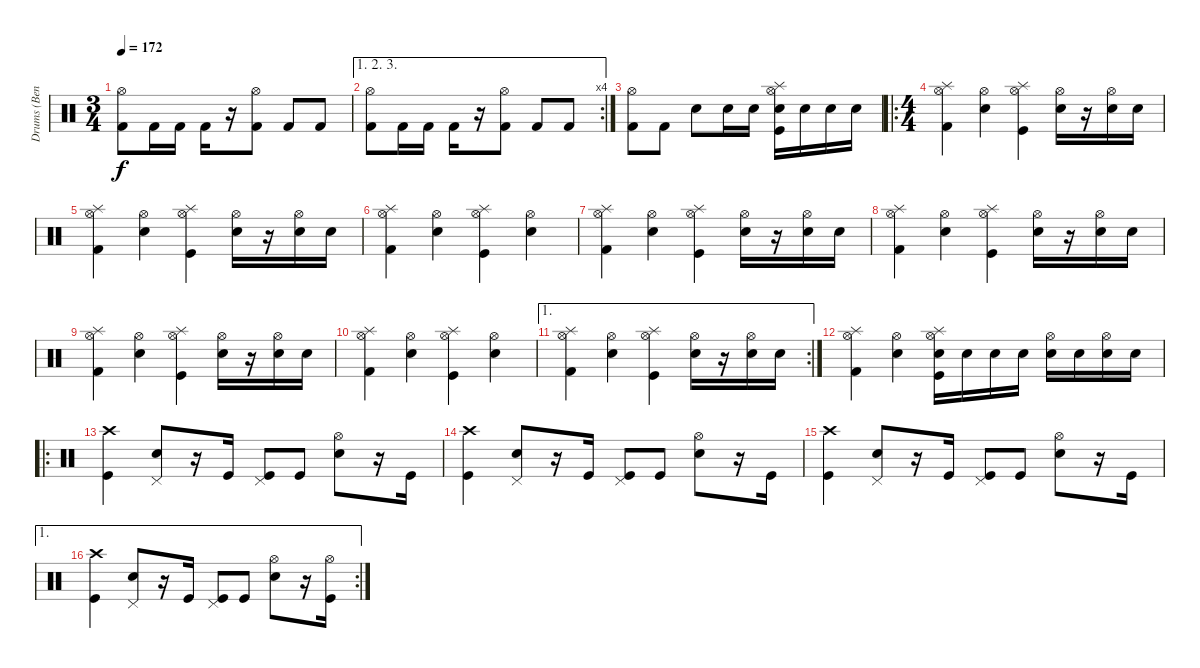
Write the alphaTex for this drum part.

\track ("Drums (Ben)" "Drums (Ben") {instrument percussion}
\staff {score}
\articulation defaults
\ts (3 4)
\tempo 172
\clef neutral
\ks c
("Hi-Hat (open)" "Kick (hit) 2").8{dy f} "Kick (hit) 2".16 "Kick (hit) 2".16 "Kick (hit) 2".16 r.16 ("Hi-Hat (open)" "Kick (hit) 2").8 "Kick (hit) 2".8 "Kick (hit) 2".8 |
\ae (1 2 3)
\rc 4
("Hi-Hat (open)" "Kick (hit) 2").8 "Kick (hit) 2".16 "Kick (hit) 2".16 "Kick (hit) 2".16 r.16 ("Hi-Hat (open)" "Kick (hit) 2").8 "Kick (hit) 2".8 "Kick (hit) 2".8 |
("Hi-Hat (open)" "Kick (hit) 2").8 "Kick (hit) 2".8 "Snare (hit) 2".8 "Snare (hit) 2".16 "Snare (hit) 2".16 ("Kick (hit)" "Snare (hit) 2" "Hi-Hat (open)" "Splash (hit)").16 "Snare (hit) 2".16 "Snare (hit) 2".16 "Snare (hit) 2".16 |
\ro
\ts (4 4)
("Kick (hit) 2" "Hi-Hat (open)" "Splash (hit)").4 ("Snare (hit) 2" "Hi-Hat (open)").4 ("Kick (hit)" "Hi-Hat (open)" "Splash (hit)").4 ("Snare (hit) 2" "Hi-Hat (open)").16 r.16 ("Snare (hit) 2" "Hi-Hat (open)").16 "Snare (hit) 2".16 |
("Kick (hit) 2" "Hi-Hat (open)" "Splash (hit)").4 ("Snare (hit) 2" "Hi-Hat (open)").4 ("Kick (hit)" "Hi-Hat (open)" "Splash (hit)").4 ("Snare (hit) 2" "Hi-Hat (open)").16 r.16 ("Snare (hit) 2" "Hi-Hat (open)").16 "Snare (hit) 2".16 |
("Kick (hit) 2" "Hi-Hat (open)" "Splash (hit)").4 ("Snare (hit) 2" "Hi-Hat (open)").4 ("Kick (hit)" "Hi-Hat (open)" "Splash (hit)").4 ("Snare (hit) 2" "Hi-Hat (open)").4 |
("Kick (hit) 2" "Hi-Hat (open)" "Splash (hit)").4 ("Snare (hit) 2" "Hi-Hat (open)").4 ("Kick (hit)" "Hi-Hat (open)" "Splash (hit)").4 ("Snare (hit) 2" "Hi-Hat (open)").16 r.16 ("Snare (hit) 2" "Hi-Hat (open)").16 "Snare (hit) 2".16 |
("Kick (hit) 2" "Hi-Hat (open)" "Splash (hit)").4 ("Snare (hit) 2" "Hi-Hat (open)").4 ("Kick (hit)" "Hi-Hat (open)" "Splash (hit)").4 ("Snare (hit) 2" "Hi-Hat (open)").16 r.16 ("Snare (hit) 2" "Hi-Hat (open)").16 "Snare (hit) 2".16 |
("Kick (hit) 2" "Hi-Hat (open)" "Splash (hit)").4 ("Snare (hit) 2" "Hi-Hat (open)").4 ("Kick (hit)" "Hi-Hat (open)" "Splash (hit)").4 ("Snare (hit) 2" "Hi-Hat (open)").16 r.16 ("Snare (hit) 2" "Hi-Hat (open)").16 "Snare (hit) 2".16 |
("Kick (hit) 2" "Hi-Hat (open)" "Splash (hit)").4 ("Snare (hit) 2" "Hi-Hat (open)").4 ("Kick (hit)" "Hi-Hat (open)" "Splash (hit)").4 ("Snare (hit) 2" "Hi-Hat (open)").4 |
\ae 1
\rc 2
("Kick (hit) 2" "Hi-Hat (open)" "Splash (hit)").4 ("Snare (hit) 2" "Hi-Hat (open)").4 ("Kick (hit)" "Hi-Hat (open)" "Splash (hit)").4 ("Snare (hit) 2" "Hi-Hat (open)").16 r.16 ("Snare (hit) 2" "Hi-Hat (open)").16 "Snare (hit) 2".16 |
("Kick (hit) 2" "Hi-Hat (open)" "Splash (hit)").4 ("Snare (hit) 2" "Hi-Hat (open)").4 ("Kick (hit)" "Snare (hit) 2" "Hi-Hat (open)" "Splash (hit)").16 "Snare (hit) 2".16 "Snare (hit) 2".16 "Snare (hit) 2".16 ("Snare (hit) 2" "Hi-Hat (open)").16 "Snare (hit) 2".16 ("Snare (hit) 2" "Hi-Hat (open)").16 "Snare (hit) 2".16 |
\ro
("Crash high (hit)" "Kick (hit)").4 ("Pedal Hi-Hat (hit)" "Snare (hit) 2").8 r.16 "Kick (hit)".16 ("Pedal Hi-Hat (hit)" "Kick (hit)").8 "Kick (hit)".8 ("Hi-Hat (open)" "Snare (hit) 2").8 r.16 "Kick (hit)".16 |
("Crash high (hit)" "Kick (hit)").4 ("Pedal Hi-Hat (hit)" "Snare (hit) 2").8 r.16 "Kick (hit)".16 ("Pedal Hi-Hat (hit)" "Kick (hit)").8 "Kick (hit)".8 ("Hi-Hat (open)" "Snare (hit) 2").8 r.16 "Kick (hit)".16 |
("Crash high (hit)" "Kick (hit)").4 ("Pedal Hi-Hat (hit)" "Snare (hit) 2").8 r.16 "Kick (hit)".16 ("Pedal Hi-Hat (hit)" "Kick (hit)").8 "Kick (hit)".8 ("Hi-Hat (open)" "Snare (hit) 2").8 r.16 "Kick (hit)".16 |
\ae 1
\rc 2
("Crash high (hit)" "Kick (hit)").4 ("Pedal Hi-Hat (hit)" "Snare (hit) 2").8 r.16 "Kick (hit)".16 ("Pedal Hi-Hat (hit)" "Kick (hit)").8 "Kick (hit)".8 ("Hi-Hat (open)" "Snare (hit) 2").8 r.16 ("Hi-Hat (open)" "Kick (hit)").16
